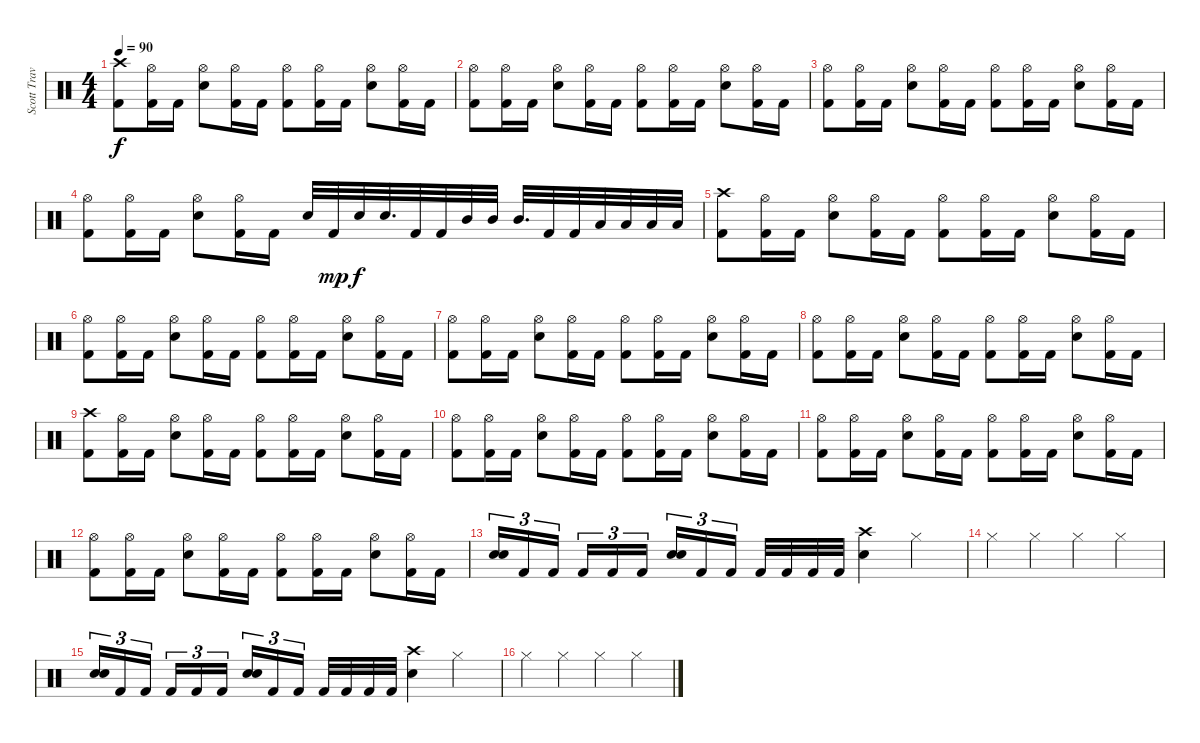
\track ("Scott Travis" "Scott Trav") {instrument percussion}
\staff {score}
\articulation defaults
\ts (4 4)
\tempo 90
\clef neutral
\ks c
("Kick (hit) 2" "Crash high (hit)").8{dy f} ("Kick (hit) 2" "Hi-Hat (open)").16 "Kick (hit) 2".16 ("Electric Snare (hit)" "Hi-Hat (open)").8 ("Kick (hit) 2" "Hi-Hat (open)").16 "Kick (hit) 2".16 ("Kick (hit) 2" "Hi-Hat (open)").8 ("Kick (hit) 2" "Hi-Hat (open)").16 "Kick (hit) 2".16 ("Electric Snare (hit)" "Hi-Hat (open)").8 ("Kick (hit) 2" "Hi-Hat (open)").16 "Kick (hit) 2".16 |
("Kick (hit) 2" "Hi-Hat (open)").8 ("Kick (hit) 2" "Hi-Hat (open)").16 "Kick (hit) 2".16 ("Electric Snare (hit)" "Hi-Hat (open)").8 ("Kick (hit) 2" "Hi-Hat (open)").16 "Kick (hit) 2".16 ("Kick (hit) 2" "Hi-Hat (open)").8 ("Kick (hit) 2" "Hi-Hat (open)").16 "Kick (hit) 2".16 ("Electric Snare (hit)" "Hi-Hat (open)").8 ("Kick (hit) 2" "Hi-Hat (open)").16 "Kick (hit) 2".16 |
("Kick (hit) 2" "Hi-Hat (open)").8 ("Kick (hit) 2" "Hi-Hat (open)").16 "Kick (hit) 2".16 ("Electric Snare (hit)" "Hi-Hat (open)").8 ("Kick (hit) 2" "Hi-Hat (open)").16 "Kick (hit) 2".16 ("Kick (hit) 2" "Hi-Hat (open)").8 ("Kick (hit) 2" "Hi-Hat (open)").16 "Kick (hit) 2".16 ("Electric Snare (hit)" "Hi-Hat (open)").8 ("Kick (hit) 2" "Hi-Hat (open)").16 "Kick (hit) 2".16 |
("Kick (hit) 2" "Hi-Hat (open)").8 ("Kick (hit) 2" "Hi-Hat (open)").16 "Kick (hit) 2".16 ("Electric Snare (hit)" "Hi-Hat (open)").8 ("Kick (hit) 2" "Hi-Hat (open)").16 "Kick (hit) 2".16 "Electric Snare (hit)".32 "Kick (hit) 2".32{dy mp} "Electric Snare (hit)".32{dy f} "Electric Snare (hit)".32{d} "Kick (hit) 2".32 "Kick (hit) 2".32 "Mid Tom (hit)".32 "Mid Tom (hit)".32 "Mid Tom (hit)".32{d} "Kick (hit) 2".32 "Kick (hit) 2".32 "Low Tom (hit)".32 "Low Tom (hit)".32 "Low Tom (hit)".32 "Low Tom (hit)".32 |
("Kick (hit) 2" "Crash high (hit)").8 ("Kick (hit) 2" "Hi-Hat (open)").16 "Kick (hit) 2".16 ("Electric Snare (hit)" "Hi-Hat (open)").8 ("Kick (hit) 2" "Hi-Hat (open)").16 "Kick (hit) 2".16 ("Kick (hit) 2" "Hi-Hat (open)").8 ("Kick (hit) 2" "Hi-Hat (open)").16 "Kick (hit) 2".16 ("Electric Snare (hit)" "Hi-Hat (open)").8 ("Kick (hit) 2" "Hi-Hat (open)").16 "Kick (hit) 2".16 |
("Kick (hit) 2" "Hi-Hat (open)").8 ("Kick (hit) 2" "Hi-Hat (open)").16 "Kick (hit) 2".16 ("Electric Snare (hit)" "Hi-Hat (open)").8 ("Kick (hit) 2" "Hi-Hat (open)").16 "Kick (hit) 2".16 ("Kick (hit) 2" "Hi-Hat (open)").8 ("Kick (hit) 2" "Hi-Hat (open)").16 "Kick (hit) 2".16 ("Electric Snare (hit)" "Hi-Hat (open)").8 ("Kick (hit) 2" "Hi-Hat (open)").16 "Kick (hit) 2".16 |
("Kick (hit) 2" "Hi-Hat (open)").8 ("Kick (hit) 2" "Hi-Hat (open)").16 "Kick (hit) 2".16 ("Electric Snare (hit)" "Hi-Hat (open)").8 ("Kick (hit) 2" "Hi-Hat (open)").16 "Kick (hit) 2".16 ("Kick (hit) 2" "Hi-Hat (open)").8 ("Kick (hit) 2" "Hi-Hat (open)").16 "Kick (hit) 2".16 ("Electric Snare (hit)" "Hi-Hat (open)").8 ("Kick (hit) 2" "Hi-Hat (open)").16 "Kick (hit) 2".16 |
("Kick (hit) 2" "Hi-Hat (open)").8 ("Kick (hit) 2" "Hi-Hat (open)").16 "Kick (hit) 2".16 ("Electric Snare (hit)" "Hi-Hat (open)").8 ("Kick (hit) 2" "Hi-Hat (open)").16 "Kick (hit) 2".16 ("Kick (hit) 2" "Hi-Hat (open)").8 ("Kick (hit) 2" "Hi-Hat (open)").16 "Kick (hit) 2".16 ("Electric Snare (hit)" "Hi-Hat (open)").8 ("Kick (hit) 2" "Hi-Hat (open)").16 "Kick (hit) 2".16 |
("Kick (hit) 2" "Crash high (hit)").8 ("Kick (hit) 2" "Hi-Hat (open)").16 "Kick (hit) 2".16 ("Electric Snare (hit)" "Hi-Hat (open)").8 ("Kick (hit) 2" "Hi-Hat (open)").16 "Kick (hit) 2".16 ("Kick (hit) 2" "Hi-Hat (open)").8 ("Kick (hit) 2" "Hi-Hat (open)").16 "Kick (hit) 2".16 ("Electric Snare (hit)" "Hi-Hat (open)").8 ("Kick (hit) 2" "Hi-Hat (open)").16 "Kick (hit) 2".16 |
("Kick (hit) 2" "Hi-Hat (open)").8 ("Kick (hit) 2" "Hi-Hat (open)").16 "Kick (hit) 2".16 ("Electric Snare (hit)" "Hi-Hat (open)").8 ("Kick (hit) 2" "Hi-Hat (open)").16 "Kick (hit) 2".16 ("Kick (hit) 2" "Hi-Hat (open)").8 ("Kick (hit) 2" "Hi-Hat (open)").16 "Kick (hit) 2".16 ("Electric Snare (hit)" "Hi-Hat (open)").8 ("Kick (hit) 2" "Hi-Hat (open)").16 "Kick (hit) 2".16 |
("Kick (hit) 2" "Hi-Hat (open)").8 ("Kick (hit) 2" "Hi-Hat (open)").16 "Kick (hit) 2".16 ("Electric Snare (hit)" "Hi-Hat (open)").8 ("Kick (hit) 2" "Hi-Hat (open)").16 "Kick (hit) 2".16 ("Kick (hit) 2" "Hi-Hat (open)").8 ("Kick (hit) 2" "Hi-Hat (open)").16 "Kick (hit) 2".16 ("Electric Snare (hit)" "Hi-Hat (open)").8 ("Kick (hit) 2" "Hi-Hat (open)").16 "Kick (hit) 2".16 |
("Kick (hit) 2" "Hi-Hat (open)").8 ("Kick (hit) 2" "Hi-Hat (open)").16 "Kick (hit) 2".16 ("Electric Snare (hit)" "Hi-Hat (open)").8 ("Kick (hit) 2" "Hi-Hat (open)").16 "Kick (hit) 2".16 ("Kick (hit) 2" "Hi-Hat (open)").8 ("Kick (hit) 2" "Hi-Hat (open)").16 "Kick (hit) 2".16 ("Electric Snare (hit)" "Hi-Hat (open)").8 ("Kick (hit) 2" "Hi-Hat (open)").16 "Kick (hit) 2".16 |
("Electric Snare (hit)" "Electric Snare (hit)").16{tu (3 2)} "Kick (hit) 2".16{tu (3 2)} "Kick (hit) 2".16{tu (3 2) beam splitsecondary} "Kick (hit) 2".16{tu (3 2)} "Kick (hit) 2".16{tu (3 2)} "Kick (hit) 2".16{tu (3 2)} ("Electric Snare (hit)" "Electric Snare (hit)").16{tu (3 2)} "Kick (hit) 2".16{tu (3 2)} "Kick (hit) 2".16{tu (3 2) beam splitsecondary} "Kick (hit) 2".32 "Kick (hit) 2".32 "Kick (hit) 2".32 "Kick (hit) 2".32 ("Electric Snare (hit)" "Crash high (hit)").4 "Hi-Hat (closed)".4 |
"Hi-Hat (closed)".4 "Hi-Hat (closed)".4 "Hi-Hat (closed)".4 "Hi-Hat (closed)".4 |
("Electric Snare (hit)" "Electric Snare (hit)").16{tu (3 2)} "Kick (hit) 2".16{tu (3 2)} "Kick (hit) 2".16{tu (3 2) beam splitsecondary} "Kick (hit) 2".16{tu (3 2)} "Kick (hit) 2".16{tu (3 2)} "Kick (hit) 2".16{tu (3 2)} ("Electric Snare (hit)" "Electric Snare (hit)").16{tu (3 2)} "Kick (hit) 2".16{tu (3 2)} "Kick (hit) 2".16{tu (3 2) beam splitsecondary} "Kick (hit) 2".32 "Kick (hit) 2".32 "Kick (hit) 2".32 "Kick (hit) 2".32 ("Electric Snare (hit)" "Crash high (hit)").4 "Hi-Hat (closed)".4 |
"Hi-Hat (closed)".4 "Hi-Hat (closed)".4 "Hi-Hat (closed)".4 "Hi-Hat (closed)".4
